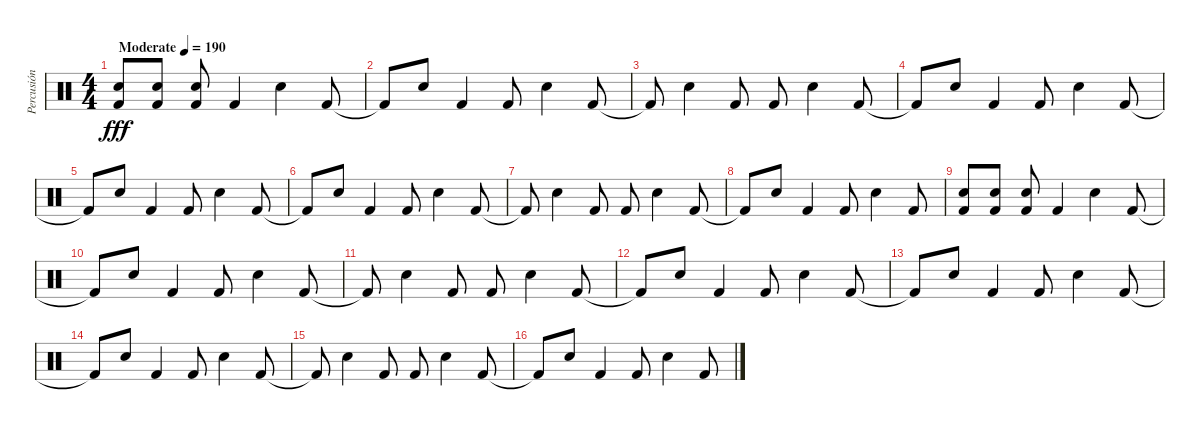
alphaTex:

\track ("Percusión" "Percusión") {instrument percussion}
\staff {score}
\articulation defaults
\ts (4 4)
\tempo (190 "Moderate")
\clef neutral
\ks c
("Snare (hit) 2" "Kick (hit) 2").8{dy fff} ("Snare (hit) 2" "Kick (hit) 2").8 ("Snare (hit) 2" "Kick (hit) 2").8 "Kick (hit) 2".4 "Snare (hit) 2".4 "Kick (hit) 2".8 |
"Kick (hit) 2"{t}.8 "Snare (hit) 2".8 "Kick (hit) 2".4 "Kick (hit) 2".8 "Snare (hit) 2".4 "Kick (hit) 2".8 |
"Kick (hit) 2"{t}.8 "Snare (hit) 2".4 "Kick (hit) 2".8 "Kick (hit) 2".8 "Snare (hit) 2".4 "Kick (hit) 2".8 |
"Kick (hit) 2"{t}.8 "Snare (hit) 2".8 "Kick (hit) 2".4 "Kick (hit) 2".8 "Snare (hit) 2".4 "Kick (hit) 2".8 |
"Kick (hit) 2"{t}.8 "Snare (hit) 2".8 "Kick (hit) 2".4 "Kick (hit) 2".8 "Snare (hit) 2".4 "Kick (hit) 2".8 |
"Kick (hit) 2"{t}.8 "Snare (hit) 2".8 "Kick (hit) 2".4 "Kick (hit) 2".8 "Snare (hit) 2".4 "Kick (hit) 2".8 |
"Kick (hit) 2"{t}.8 "Snare (hit) 2".4 "Kick (hit) 2".8 "Kick (hit) 2".8 "Snare (hit) 2".4 "Kick (hit) 2".8 |
"Kick (hit) 2"{t}.8 "Snare (hit) 2".8 "Kick (hit) 2".4 "Kick (hit) 2".8 "Snare (hit) 2".4 "Kick (hit) 2".8 |
("Snare (hit) 2" "Kick (hit) 2").8 ("Snare (hit) 2" "Kick (hit) 2").8 ("Snare (hit) 2" "Kick (hit) 2").8 "Kick (hit) 2".4 "Snare (hit) 2".4 "Kick (hit) 2".8 |
"Kick (hit) 2"{t}.8 "Snare (hit) 2".8 "Kick (hit) 2".4 "Kick (hit) 2".8 "Snare (hit) 2".4 "Kick (hit) 2".8 |
"Kick (hit) 2"{t}.8 "Snare (hit) 2".4 "Kick (hit) 2".8 "Kick (hit) 2".8 "Snare (hit) 2".4 "Kick (hit) 2".8 |
"Kick (hit) 2"{t}.8 "Snare (hit) 2".8 "Kick (hit) 2".4 "Kick (hit) 2".8 "Snare (hit) 2".4 "Kick (hit) 2".8 |
"Kick (hit) 2"{t}.8 "Snare (hit) 2".8 "Kick (hit) 2".4 "Kick (hit) 2".8 "Snare (hit) 2".4 "Kick (hit) 2".8 |
"Kick (hit) 2"{t}.8 "Snare (hit) 2".8 "Kick (hit) 2".4 "Kick (hit) 2".8 "Snare (hit) 2".4 "Kick (hit) 2".8 |
"Kick (hit) 2"{t}.8 "Snare (hit) 2".4 "Kick (hit) 2".8 "Kick (hit) 2".8 "Snare (hit) 2".4 "Kick (hit) 2".8 |
"Kick (hit) 2"{t}.8 "Snare (hit) 2".8 "Kick (hit) 2".4 "Kick (hit) 2".8 "Snare (hit) 2".4 "Kick (hit) 2".8
